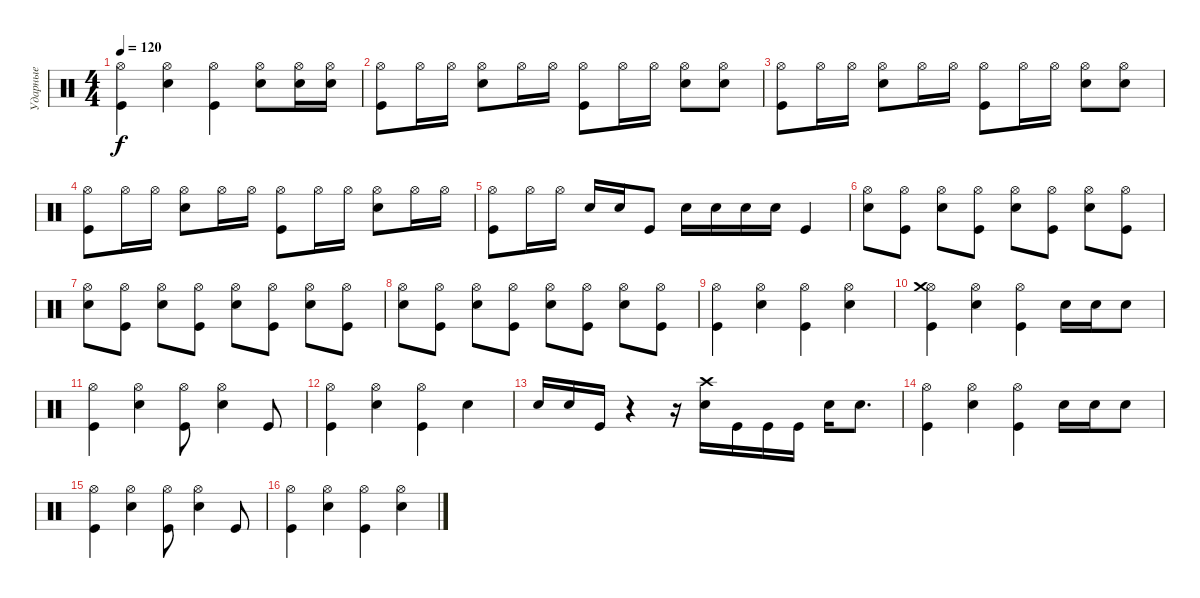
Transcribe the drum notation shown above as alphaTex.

\track ("Ударные" "Ударные") {instrument percussion}
\staff {score}
\articulation defaults
\ts (4 4)
\tempo 120
\clef neutral
\ks c
("Hi-Hat (open)" "Kick (hit)").4{dy f} ("Hi-Hat (open)" "Snare (hit) 2").4 ("Hi-Hat (open)" "Kick (hit)").4 ("Hi-Hat (open)" "Snare (hit) 2").8 ("Hi-Hat (open)" "Snare (hit) 2").16 ("Hi-Hat (open)" "Snare (hit) 2").16 |
("Hi-Hat (open)" "Kick (hit)").8 "Hi-Hat (open)".16 "Hi-Hat (open)".16 ("Hi-Hat (open)" "Snare (hit) 2").8 "Hi-Hat (open)".16 "Hi-Hat (open)".16 ("Hi-Hat (open)" "Kick (hit)").8 "Hi-Hat (open)".16 "Hi-Hat (open)".16 ("Snare (hit) 2" "Hi-Hat (open)").8 ("Snare (hit) 2" "Hi-Hat (open)").8 |
("Hi-Hat (open)" "Kick (hit)").8 "Hi-Hat (open)".16 "Hi-Hat (open)".16 ("Hi-Hat (open)" "Snare (hit) 2").8 "Hi-Hat (open)".16 "Hi-Hat (open)".16 ("Hi-Hat (open)" "Kick (hit)").8 "Hi-Hat (open)".16 "Hi-Hat (open)".16 ("Snare (hit) 2" "Hi-Hat (open)").8 ("Snare (hit) 2" "Hi-Hat (open)").8 |
("Hi-Hat (open)" "Kick (hit)").8 "Hi-Hat (open)".16 "Hi-Hat (open)".16 ("Hi-Hat (open)" "Snare (hit) 2").8 "Hi-Hat (open)".16 "Hi-Hat (open)".16 ("Hi-Hat (open)" "Kick (hit)").8 "Hi-Hat (open)".16 "Hi-Hat (open)".16 ("Snare (hit) 2" "Hi-Hat (open)").8 "Hi-Hat (open)".16 "Hi-Hat (open)".16 |
("Hi-Hat (open)" "Kick (hit)").8 "Hi-Hat (open)".16 "Hi-Hat (open)".16 "Snare (hit) 2".16 "Snare (hit) 2".16 "Kick (hit)".8 "Snare (hit) 2".16 "Snare (hit) 2".16 "Snare (hit) 2".16 "Snare (hit) 2".16 "Kick (hit)".4 |
("Hi-Hat (open)" "Snare (hit) 2").8 ("Hi-Hat (open)" "Kick (hit)").8 ("Hi-Hat (open)" "Snare (hit) 2").8 ("Hi-Hat (open)" "Kick (hit)").8 ("Hi-Hat (open)" "Snare (hit) 2").8 ("Hi-Hat (open)" "Kick (hit)").8 ("Hi-Hat (open)" "Snare (hit) 2").8 ("Hi-Hat (open)" "Kick (hit)").8 |
("Hi-Hat (open)" "Snare (hit) 2").8 ("Hi-Hat (open)" "Kick (hit)").8 ("Hi-Hat (open)" "Snare (hit) 2").8 ("Hi-Hat (open)" "Kick (hit)").8 ("Hi-Hat (open)" "Snare (hit) 2").8 ("Hi-Hat (open)" "Kick (hit)").8 ("Hi-Hat (open)" "Snare (hit) 2").8 ("Hi-Hat (open)" "Kick (hit)").8 |
("Hi-Hat (open)" "Snare (hit) 2").8 ("Hi-Hat (open)" "Kick (hit)").8 ("Hi-Hat (open)" "Snare (hit) 2").8 ("Hi-Hat (open)" "Kick (hit)").8 ("Hi-Hat (open)" "Snare (hit) 2").8 ("Hi-Hat (open)" "Kick (hit)").8 ("Hi-Hat (open)" "Snare (hit) 2").8 ("Hi-Hat (open)" "Kick (hit)").8 |
("Hi-Hat (open)" "Kick (hit)").4 ("Hi-Hat (open)" "Snare (hit) 2").4 ("Hi-Hat (open)" "Kick (hit)").4 ("Hi-Hat (open)" "Snare (hit) 2").4 |
("Kick (hit)" "Hi-Hat (open)" "Crash medium (hit)").4 ("Snare (hit) 2" "Hi-Hat (open)").4 ("Kick (hit)" "Hi-Hat (open)").4 "Snare (hit) 2".16 "Snare (hit) 2".16 "Snare (hit) 2".8 |
("Hi-Hat (open)" "Kick (hit)").4 ("Hi-Hat (open)" "Snare (hit) 2").4 ("Hi-Hat (open)" "Kick (hit)").8 ("Hi-Hat (open)" "Snare (hit) 2").4 "Kick (hit)".8 |
("Hi-Hat (open)" "Kick (hit)").4 ("Hi-Hat (open)" "Snare (hit) 2").4 ("Hi-Hat (open)" "Kick (hit)").4 "Snare (hit) 2".4 |
"Snare (hit) 2".16 "Snare (hit) 2".16 "Kick (hit)".16 r.4 r.16 ("Crash high (hit)" "Snare (hit) 2").16 "Kick (hit)".16 "Kick (hit)".16 "Kick (hit)".16 "Snare (hit) 2".16 "Snare (hit) 2".8{d} |
("Kick (hit)" "Hi-Hat (open)").4 ("Snare (hit) 2" "Hi-Hat (open)").4 ("Kick (hit)" "Hi-Hat (open)").4 "Snare (hit) 2".16 "Snare (hit) 2".16 "Snare (hit) 2".8 |
("Hi-Hat (open)" "Kick (hit)").4 ("Hi-Hat (open)" "Snare (hit) 2").4 ("Hi-Hat (open)" "Kick (hit)").8 ("Hi-Hat (open)" "Snare (hit) 2").4 "Kick (hit)".8 |
("Hi-Hat (open)" "Kick (hit)").4 ("Hi-Hat (open)" "Snare (hit) 2").4 ("Hi-Hat (open)" "Kick (hit)").4 ("Hi-Hat (open)" "Snare (hit) 2").4
